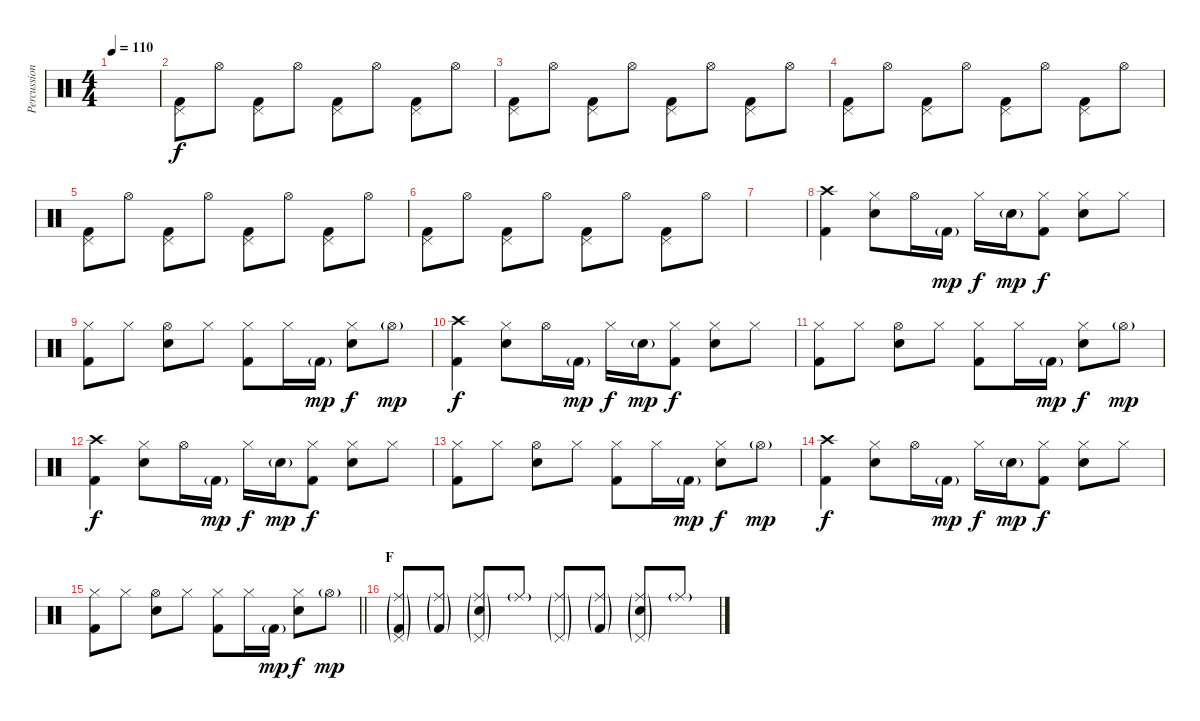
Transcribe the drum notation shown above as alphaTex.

\track ("Percussion" "Percussion") {instrument percussion}
\staff {score}
\articulation defaults
\ts (4 4)
\tempo 110
\clef neutral
\ks c
|
("Pedal Hi-Hat (hit)" "Kick (hit) 2").8 "Hi-Hat (open)".8 ("Pedal Hi-Hat (hit)" "Kick (hit) 2").8 "Hi-Hat (open)".8 ("Pedal Hi-Hat (hit)" "Kick (hit) 2").8 "Hi-Hat (open)".8 ("Pedal Hi-Hat (hit)" "Kick (hit) 2").8 "Hi-Hat (open)".8 |
("Pedal Hi-Hat (hit)" "Kick (hit) 2").8 "Hi-Hat (open)".8 ("Pedal Hi-Hat (hit)" "Kick (hit) 2").8 "Hi-Hat (open)".8 ("Pedal Hi-Hat (hit)" "Kick (hit) 2").8 "Hi-Hat (open)".8 ("Pedal Hi-Hat (hit)" "Kick (hit) 2").8 "Hi-Hat (open)".8 |
("Pedal Hi-Hat (hit)" "Kick (hit) 2").8 "Hi-Hat (open)".8 ("Pedal Hi-Hat (hit)" "Kick (hit) 2").8 "Hi-Hat (open)".8 ("Pedal Hi-Hat (hit)" "Kick (hit) 2").8 "Hi-Hat (open)".8 ("Pedal Hi-Hat (hit)" "Kick (hit) 2").8 "Hi-Hat (open)".8 |
("Pedal Hi-Hat (hit)" "Kick (hit) 2").8 "Hi-Hat (open)".8 ("Pedal Hi-Hat (hit)" "Kick (hit) 2").8 "Hi-Hat (open)".8 ("Pedal Hi-Hat (hit)" "Kick (hit) 2").8 "Hi-Hat (open)".8 ("Pedal Hi-Hat (hit)" "Kick (hit) 2").8 "Hi-Hat (open)".8 |
("Pedal Hi-Hat (hit)" "Kick (hit) 2").8 "Hi-Hat (open)".8 ("Pedal Hi-Hat (hit)" "Kick (hit) 2").8 "Hi-Hat (open)".8 ("Pedal Hi-Hat (hit)" "Kick (hit) 2").8 "Hi-Hat (open)".8 ("Pedal Hi-Hat (hit)" "Kick (hit) 2").8 "Hi-Hat (open)".8 |
|
("Crash high (hit)" "Kick (hit) 2").4 ("Hi-Hat (closed)" "Electric Snare (hit)").8 "Hi-Hat (open)".16 "Kick (hit) 2"{g}.16{dy mp} "Hi-Hat (closed)".16{dy f} "Electric Snare (hit)"{g}.16{dy mp} ("Hi-Hat (closed)" "Kick (hit) 2").8{dy f} ("Hi-Hat (closed)" "Electric Snare (hit)").8 "Hi-Hat (closed)".8 |
("Hi-Hat (closed)" "Kick (hit) 2").8 "Hi-Hat (closed)".8 ("Hi-Hat (open)" "Electric Snare (hit)").8 "Hi-Hat (closed)".8 ("Hi-Hat (closed)" "Kick (hit) 2").8 "Hi-Hat (closed)".16 "Kick (hit) 2"{g}.16{dy mp} ("Hi-Hat (closed)" "Electric Snare (hit)").8{dy f} "Hi-Hat (open)"{g}.8{dy mp} |
("Crash high (hit)" "Kick (hit) 2").4{dy f} ("Hi-Hat (closed)" "Electric Snare (hit)").8 "Hi-Hat (open)".16 "Kick (hit) 2"{g}.16{dy mp} "Hi-Hat (closed)".16{dy f} "Electric Snare (hit)"{g}.16{dy mp} ("Hi-Hat (closed)" "Kick (hit) 2").8{dy f} ("Hi-Hat (closed)" "Electric Snare (hit)").8 "Hi-Hat (closed)".8 |
("Hi-Hat (closed)" "Kick (hit) 2").8 "Hi-Hat (closed)".8 ("Hi-Hat (open)" "Electric Snare (hit)").8 "Hi-Hat (closed)".8 ("Hi-Hat (closed)" "Kick (hit) 2").8 "Hi-Hat (closed)".16 "Kick (hit) 2"{g}.16{dy mp} ("Hi-Hat (closed)" "Electric Snare (hit)").8{dy f} "Hi-Hat (open)"{g}.8{dy mp} |
("Crash high (hit)" "Kick (hit) 2").4{dy f} ("Hi-Hat (closed)" "Electric Snare (hit)").8 "Hi-Hat (open)".16 "Kick (hit) 2"{g}.16{dy mp} "Hi-Hat (closed)".16{dy f} "Electric Snare (hit)"{g}.16{dy mp} ("Hi-Hat (closed)" "Kick (hit) 2").8{dy f} ("Hi-Hat (closed)" "Electric Snare (hit)").8 "Hi-Hat (closed)".8 |
("Hi-Hat (closed)" "Kick (hit) 2").8 "Hi-Hat (closed)".8 ("Hi-Hat (open)" "Electric Snare (hit)").8 "Hi-Hat (closed)".8 ("Hi-Hat (closed)" "Kick (hit) 2").8 "Hi-Hat (closed)".16 "Kick (hit) 2"{g}.16{dy mp} ("Hi-Hat (closed)" "Electric Snare (hit)").8{dy f} "Hi-Hat (open)"{g}.8{dy mp} |
("Crash high (hit)" "Kick (hit) 2").4{dy f} ("Hi-Hat (closed)" "Electric Snare (hit)").8 "Hi-Hat (open)".16 "Kick (hit) 2"{g}.16{dy mp} "Hi-Hat (closed)".16{dy f} "Electric Snare (hit)"{g}.16{dy mp} ("Hi-Hat (closed)" "Kick (hit) 2").8{dy f} ("Hi-Hat (closed)" "Electric Snare (hit)").8 "Hi-Hat (closed)".8 |
\barLineRight lightlight
("Hi-Hat (closed)" "Kick (hit) 2").8 "Hi-Hat (closed)".8 ("Hi-Hat (open)" "Electric Snare (hit)").8 "Hi-Hat (closed)".8 ("Hi-Hat (closed)" "Kick (hit) 2").8 "Hi-Hat (closed)".16 "Kick (hit) 2"{g}.16{dy mp} ("Hi-Hat (closed)" "Electric Snare (hit)").8{dy f} "Hi-Hat (open)"{g}.8{dy mp} |
\section ("" "F")
("Ride (middle)"{g} "Pedal Hi-Hat (hit)"{g} "Kick (hit) 2"{g}).8 ("Ride (middle)"{g} "Kick (hit) 2"{g}).8 ("Ride (middle)"{g} "Pedal Hi-Hat (hit)"{g} "Electric Snare (hit)"{g}).8 "Ride (middle)"{g}.8 ("Ride (middle)"{g} "Pedal Hi-Hat (hit)"{g}).8 ("Ride (middle)"{g} "Kick (hit) 2"{g}).8 ("Ride (middle)"{g} "Pedal Hi-Hat (hit)"{g} "Electric Snare (hit)"{g}).8 "Ride (middle)"{g}.8
